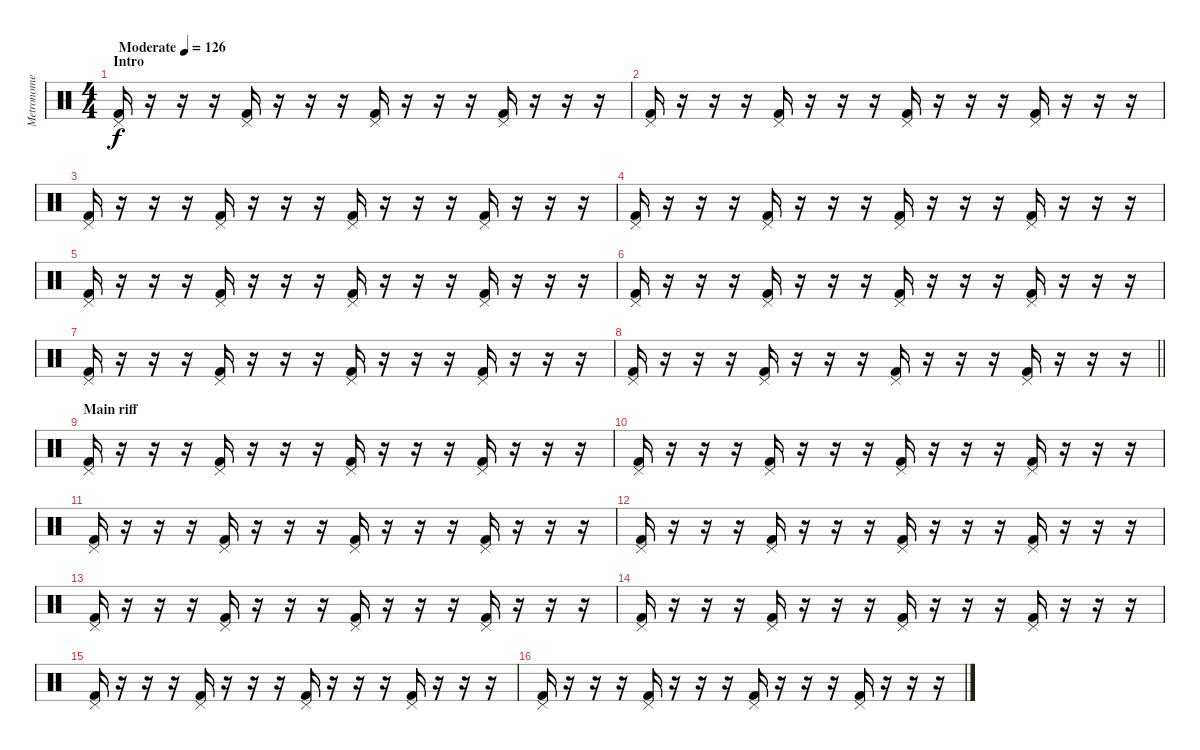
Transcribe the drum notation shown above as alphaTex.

\track ("Metronome" "Metronome") {mute instrument percussion}
\staff {score}
\articulation defaults
\ts (4 4)
\section ("" "Intro")
\tempo (126 "Moderate")
\clef neutral
\ks c
("Pedal Hi-Hat (hit)" "Kick (hit) 2").16{dy f} r.16 r.16 r.16 ("Pedal Hi-Hat (hit)" "Kick (hit) 2").16 r.16 r.16 r.16 ("Pedal Hi-Hat (hit)" "Kick (hit) 2").16 r.16 r.16 r.16 ("Pedal Hi-Hat (hit)" "Kick (hit) 2").16 r.16 r.16 r.16 |
("Pedal Hi-Hat (hit)" "Kick (hit) 2").16 r.16 r.16 r.16 ("Pedal Hi-Hat (hit)" "Kick (hit) 2").16 r.16 r.16 r.16 ("Pedal Hi-Hat (hit)" "Kick (hit) 2").16 r.16 r.16 r.16 ("Pedal Hi-Hat (hit)" "Kick (hit) 2").16 r.16 r.16 r.16 |
("Pedal Hi-Hat (hit)" "Kick (hit) 2").16 r.16 r.16 r.16 ("Pedal Hi-Hat (hit)" "Kick (hit) 2").16 r.16 r.16 r.16 ("Pedal Hi-Hat (hit)" "Kick (hit) 2").16 r.16 r.16 r.16 ("Pedal Hi-Hat (hit)" "Kick (hit) 2").16 r.16 r.16 r.16 |
("Pedal Hi-Hat (hit)" "Kick (hit) 2").16 r.16 r.16 r.16 ("Pedal Hi-Hat (hit)" "Kick (hit) 2").16 r.16 r.16 r.16 ("Pedal Hi-Hat (hit)" "Kick (hit) 2").16 r.16 r.16 r.16 ("Pedal Hi-Hat (hit)" "Kick (hit) 2").16 r.16 r.16 r.16 |
("Pedal Hi-Hat (hit)" "Kick (hit) 2").16 r.16 r.16 r.16 ("Pedal Hi-Hat (hit)" "Kick (hit) 2").16 r.16 r.16 r.16 ("Pedal Hi-Hat (hit)" "Kick (hit) 2").16 r.16 r.16 r.16 ("Pedal Hi-Hat (hit)" "Kick (hit) 2").16 r.16 r.16 r.16 |
("Pedal Hi-Hat (hit)" "Kick (hit) 2").16 r.16 r.16 r.16 ("Pedal Hi-Hat (hit)" "Kick (hit) 2").16 r.16 r.16 r.16 ("Pedal Hi-Hat (hit)" "Kick (hit) 2").16 r.16 r.16 r.16 ("Pedal Hi-Hat (hit)" "Kick (hit) 2").16 r.16 r.16 r.16 |
("Pedal Hi-Hat (hit)" "Kick (hit) 2").16 r.16 r.16 r.16 ("Pedal Hi-Hat (hit)" "Kick (hit) 2").16 r.16 r.16 r.16 ("Pedal Hi-Hat (hit)" "Kick (hit) 2").16 r.16 r.16 r.16 ("Pedal Hi-Hat (hit)" "Kick (hit) 2").16 r.16 r.16 r.16 |
\barLineRight lightlight
("Pedal Hi-Hat (hit)" "Kick (hit) 2").16 r.16 r.16 r.16 ("Pedal Hi-Hat (hit)" "Kick (hit) 2").16 r.16 r.16 r.16 ("Pedal Hi-Hat (hit)" "Kick (hit) 2").16 r.16 r.16 r.16 ("Pedal Hi-Hat (hit)" "Kick (hit) 2").16 r.16 r.16 r.16 |
\section ("" "Main riff")
("Pedal Hi-Hat (hit)" "Kick (hit) 2").16 r.16 r.16 r.16 ("Pedal Hi-Hat (hit)" "Kick (hit) 2").16 r.16 r.16 r.16 ("Pedal Hi-Hat (hit)" "Kick (hit) 2").16 r.16 r.16 r.16 ("Pedal Hi-Hat (hit)" "Kick (hit) 2").16 r.16 r.16 r.16 |
("Pedal Hi-Hat (hit)" "Kick (hit) 2").16 r.16 r.16 r.16 ("Pedal Hi-Hat (hit)" "Kick (hit) 2").16 r.16 r.16 r.16 ("Pedal Hi-Hat (hit)" "Kick (hit) 2").16 r.16 r.16 r.16 ("Pedal Hi-Hat (hit)" "Kick (hit) 2").16 r.16 r.16 r.16 |
("Pedal Hi-Hat (hit)" "Kick (hit) 2").16 r.16 r.16 r.16 ("Pedal Hi-Hat (hit)" "Kick (hit) 2").16 r.16 r.16 r.16 ("Pedal Hi-Hat (hit)" "Kick (hit) 2").16 r.16 r.16 r.16 ("Pedal Hi-Hat (hit)" "Kick (hit) 2").16 r.16 r.16 r.16 |
("Pedal Hi-Hat (hit)" "Kick (hit) 2").16 r.16 r.16 r.16 ("Pedal Hi-Hat (hit)" "Kick (hit) 2").16 r.16 r.16 r.16 ("Pedal Hi-Hat (hit)" "Kick (hit) 2").16 r.16 r.16 r.16 ("Pedal Hi-Hat (hit)" "Kick (hit) 2").16 r.16 r.16 r.16 |
("Pedal Hi-Hat (hit)" "Kick (hit) 2").16 r.16 r.16 r.16 ("Pedal Hi-Hat (hit)" "Kick (hit) 2").16 r.16 r.16 r.16 ("Pedal Hi-Hat (hit)" "Kick (hit) 2").16 r.16 r.16 r.16 ("Pedal Hi-Hat (hit)" "Kick (hit) 2").16 r.16 r.16 r.16 |
("Pedal Hi-Hat (hit)" "Kick (hit) 2").16 r.16 r.16 r.16 ("Pedal Hi-Hat (hit)" "Kick (hit) 2").16 r.16 r.16 r.16 ("Pedal Hi-Hat (hit)" "Kick (hit) 2").16 r.16 r.16 r.16 ("Pedal Hi-Hat (hit)" "Kick (hit) 2").16 r.16 r.16 r.16 |
("Pedal Hi-Hat (hit)" "Kick (hit) 2").16 r.16 r.16 r.16 ("Pedal Hi-Hat (hit)" "Kick (hit) 2").16 r.16 r.16 r.16 ("Pedal Hi-Hat (hit)" "Kick (hit) 2").16 r.16 r.16 r.16 ("Pedal Hi-Hat (hit)" "Kick (hit) 2").16 r.16 r.16 r.16 |
("Pedal Hi-Hat (hit)" "Kick (hit) 2").16 r.16 r.16 r.16 ("Pedal Hi-Hat (hit)" "Kick (hit) 2").16 r.16 r.16 r.16 ("Pedal Hi-Hat (hit)" "Kick (hit) 2").16 r.16 r.16 r.16 ("Pedal Hi-Hat (hit)" "Kick (hit) 2").16 r.16 r.16 r.16
